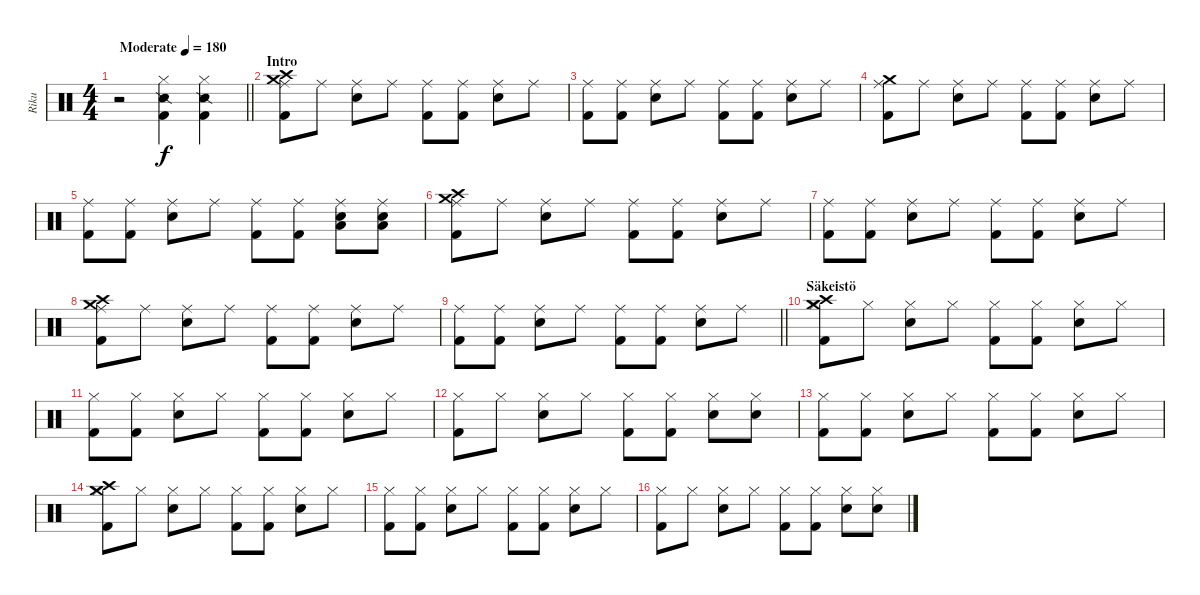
\track ("Riku" "Riku") {instrument percussion}
\staff {score}
\articulation defaults
\ts (4 4)
\tempo (180 "Moderate")
\clef neutral
\barLineRight lightlight
\ks c
r.2{dy f} ("Hi-Hat (closed)" "Kick (hit) 2" "Snare (side stick) 2").4 ("Hi-Hat (closed)" "Kick (hit) 2" "Snare (side stick) 2").4 |
\section ("" "Intro")
("Kick (hit) 2" "Ride (middle)" "Crash medium (hit)" "Crash high (hit)").8{volume 10} "Ride (middle)".8 ("Snare (hit) 2" "Ride (middle)").8 "Ride (middle)".8 ("Kick (hit) 2" "Ride (middle)").8 ("Kick (hit) 2" "Ride (middle)").8 ("Snare (hit) 2" "Ride (middle)").8 "Ride (middle)".8 |
("Kick (hit) 2" "Ride (middle)").8 ("Kick (hit) 2" "Ride (middle)").8 ("Snare (hit) 2" "Ride (middle)").8 "Ride (middle)".8 ("Kick (hit) 2" "Ride (middle)").8 ("Kick (hit) 2" "Ride (middle)").8 ("Snare (hit) 2" "Ride (middle)").8 "Ride (middle)".8 |
("Kick (hit) 2" "Ride (middle)" "Crash medium (hit)").8 "Ride (middle)".8 ("Snare (hit) 2" "Ride (middle)").8 "Ride (middle)".8 ("Kick (hit) 2" "Ride (middle)").8 ("Kick (hit) 2" "Ride (middle)").8 ("Snare (hit) 2" "Ride (middle)").8 "Ride (middle)".8 |
("Kick (hit) 2" "Ride (middle)").8 ("Kick (hit) 2" "Ride (middle)").8 ("Snare (hit) 2" "Ride (middle)").8 "Ride (middle)".8 ("Kick (hit) 2" "Ride (middle)").8 ("Kick (hit) 2" "Ride (middle)").8 ("Low Floor Tom (hit)" "Snare (hit) 2" "Ride (middle)").8 ("Low Floor Tom (hit)" "Snare (hit) 2" "Ride (middle)").8 |
("Kick (hit) 2" "Ride (middle)" "Crash medium (hit)" "Crash high (hit)").8 "Ride (middle)".8 ("Snare (hit) 2" "Ride (middle)").8 "Ride (middle)".8 ("Kick (hit) 2" "Ride (middle)").8 ("Kick (hit) 2" "Ride (middle)").8 ("Snare (hit) 2" "Ride (middle)").8 "Ride (middle)".8 |
("Kick (hit) 2" "Ride (middle)").8 ("Kick (hit) 2" "Ride (middle)").8 ("Snare (hit) 2" "Ride (middle)").8 "Ride (middle)".8 ("Kick (hit) 2" "Ride (middle)").8 ("Kick (hit) 2" "Ride (middle)").8 ("Snare (hit) 2" "Ride (middle)").8 "Ride (middle)".8 |
("Kick (hit) 2" "Ride (middle)" "Crash medium (hit)" "Crash high (hit)").8 "Ride (middle)".8 ("Snare (hit) 2" "Ride (middle)").8 "Ride (middle)".8 ("Kick (hit) 2" "Ride (middle)").8 ("Kick (hit) 2" "Ride (middle)").8 ("Snare (hit) 2" "Ride (middle)").8 "Ride (middle)".8 |
\barLineRight lightlight
("Kick (hit) 2" "Ride (middle)").8 ("Kick (hit) 2" "Ride (middle)").8 ("Snare (hit) 2" "Ride (middle)").8 "Ride (middle)".8 ("Kick (hit) 2" "Ride (middle)").8 ("Kick (hit) 2" "Ride (middle)").8 ("Snare (hit) 2" "Ride (middle)").8 "Ride (middle)".8 |
\section ("" "Säkeistö")
("Kick (hit) 2" "Hi-Hat (closed)" "Crash medium (hit)" "Crash high (hit)").8{volume 13} "Hi-Hat (closed)".8 ("Snare (hit) 2" "Hi-Hat (closed)").8 "Hi-Hat (closed)".8 ("Kick (hit) 2" "Hi-Hat (closed)").8 ("Kick (hit) 2" "Hi-Hat (closed)").8 ("Snare (hit) 2" "Hi-Hat (closed)").8 "Hi-Hat (closed)".8 |
("Kick (hit) 2" "Hi-Hat (closed)").8 ("Kick (hit) 2" "Hi-Hat (closed)").8 ("Snare (hit) 2" "Hi-Hat (closed)").8 "Hi-Hat (closed)".8 ("Kick (hit) 2" "Hi-Hat (closed)").8 ("Kick (hit) 2" "Hi-Hat (closed)").8 ("Snare (hit) 2" "Hi-Hat (closed)").8 "Hi-Hat (closed)".8 |
("Kick (hit) 2" "Hi-Hat (closed)").8 "Hi-Hat (closed)".8 ("Snare (hit) 2" "Hi-Hat (closed)").8 "Hi-Hat (closed)".8 ("Kick (hit) 2" "Hi-Hat (closed)").8 ("Kick (hit) 2" "Hi-Hat (closed)").8 ("Snare (hit) 2" "Hi-Hat (closed)").8 ("Snare (hit) 2" "Hi-Hat (closed)").8 |
("Kick (hit) 2" "Hi-Hat (closed)").8 ("Kick (hit) 2" "Hi-Hat (closed)").8 ("Snare (hit) 2" "Hi-Hat (closed)").8 "Hi-Hat (closed)".8 ("Kick (hit) 2" "Hi-Hat (closed)").8 ("Kick (hit) 2" "Hi-Hat (closed)").8 ("Snare (hit) 2" "Hi-Hat (closed)").8 "Hi-Hat (closed)".8 |
("Kick (hit) 2" "Hi-Hat (closed)" "Crash medium (hit)" "Crash high (hit)").8 "Hi-Hat (closed)".8 ("Snare (hit) 2" "Hi-Hat (closed)").8 "Hi-Hat (closed)".8 ("Kick (hit) 2" "Hi-Hat (closed)").8 ("Kick (hit) 2" "Hi-Hat (closed)").8 ("Snare (hit) 2" "Hi-Hat (closed)").8 "Hi-Hat (closed)".8 |
("Kick (hit) 2" "Hi-Hat (closed)").8 ("Kick (hit) 2" "Hi-Hat (closed)").8 ("Snare (hit) 2" "Hi-Hat (closed)").8 "Hi-Hat (closed)".8 ("Kick (hit) 2" "Hi-Hat (closed)").8 ("Kick (hit) 2" "Hi-Hat (closed)").8 ("Snare (hit) 2" "Hi-Hat (closed)").8 "Hi-Hat (closed)".8 |
("Kick (hit) 2" "Hi-Hat (closed)").8 "Hi-Hat (closed)".8 ("Snare (hit) 2" "Hi-Hat (closed)").8 "Hi-Hat (closed)".8 ("Kick (hit) 2" "Hi-Hat (closed)").8 ("Kick (hit) 2" "Hi-Hat (closed)").8 ("Snare (hit) 2" "Hi-Hat (closed)").8 ("Snare (hit) 2" "Hi-Hat (closed)").8
